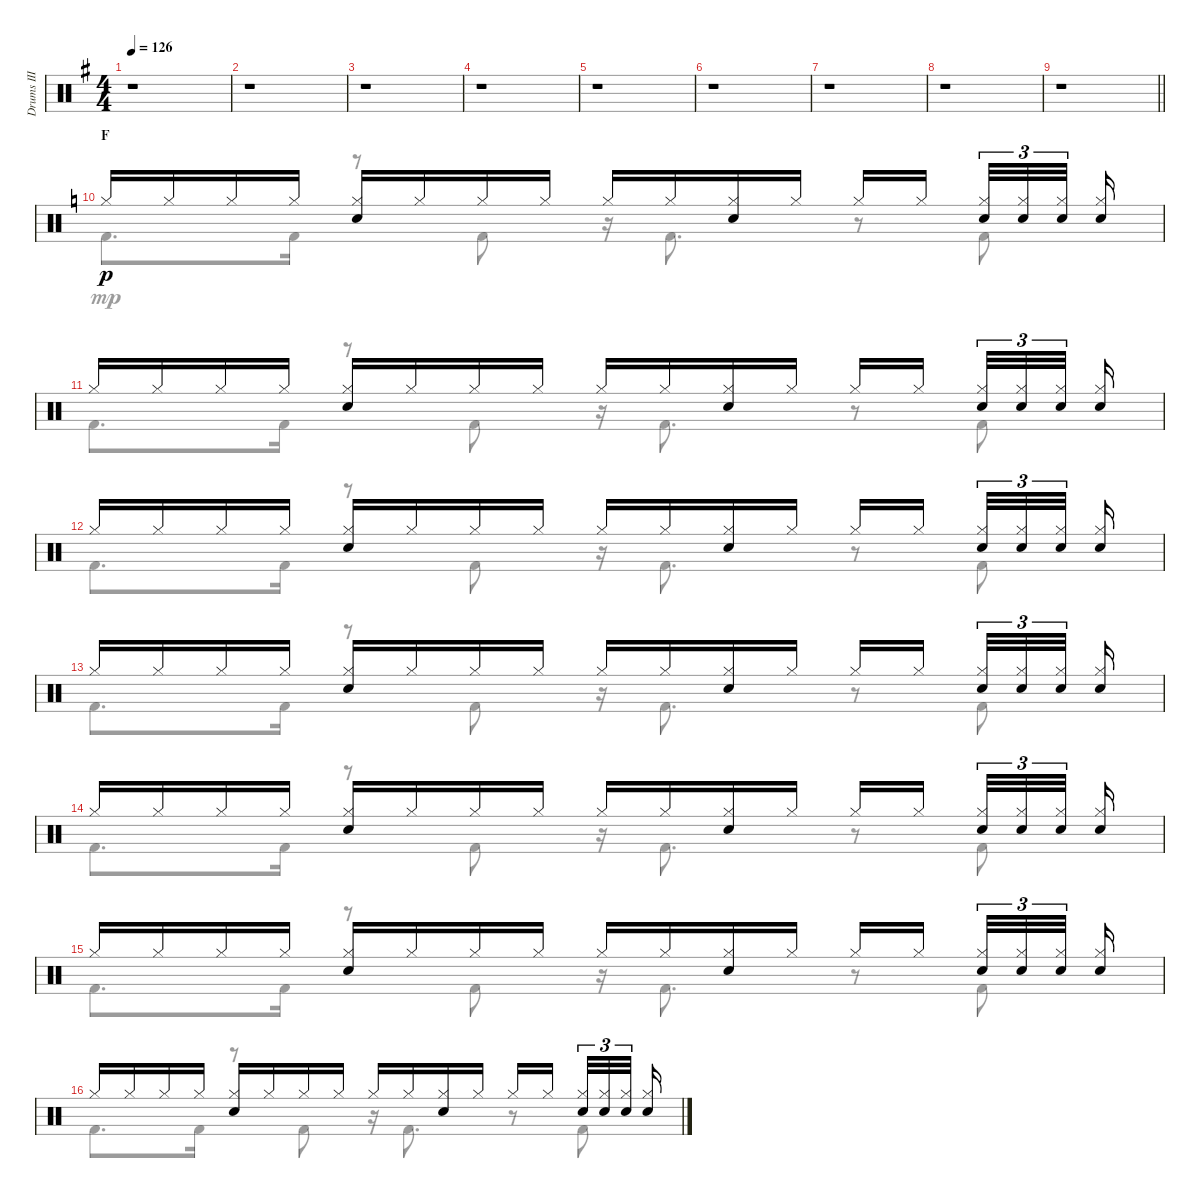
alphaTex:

\track ("Drums III" "Drums III") {instrument percussion}
\staff {score}
\articulation defaults
\voice
\ts (4 4)
\tempo 126
\clef neutral
\ks g
r.1{dy p} |
r.1 |
r.1 |
r.1 |
r.1 |
r.1 |
r.1 |
r.1 |
\barLineRight lightlight
r.1 |
\section ("" "F")
\ks c "Hi-Hat (closed)".16 "Hi-Hat (closed)".16 "Hi-Hat (closed)".16 "Hi-Hat (closed)".16
("Hi-Hat (closed)" "Electric Snare (hit)").16 "Hi-Hat (closed)".16 "Hi-Hat (closed)".16 "Hi-Hat (closed)".16 "Hi-Hat (closed)".16 "Hi-Hat (closed)".16 ("Hi-Hat (closed)" "Electric Snare (hit)").16 "Hi-Hat (closed)".16 "Hi-Hat (closed)".16 "Hi-Hat (closed)".16{beam splitsecondary} ("Hi-Hat (closed)" "Electric Snare (hit)").32{tu (3 2)} ("Hi-Hat (closed)" "Electric Snare (hit)").32{tu (3 2)} ("Hi-Hat (closed)" "Electric Snare (hit)").32{tu (3 2) beam splitsecondary} ("Hi-Hat (closed)" "Electric Snare (hit)").16 |
"Hi-Hat (closed)".16 "Hi-Hat (closed)".16 "Hi-Hat (closed)".16 "Hi-Hat (closed)".16 ("Hi-Hat (closed)" "Electric Snare (hit)").16 "Hi-Hat (closed)".16 "Hi-Hat (closed)".16 "Hi-Hat (closed)".16 "Hi-Hat (closed)".16 "Hi-Hat (closed)".16 ("Hi-Hat (closed)" "Electric Snare (hit)").16 "Hi-Hat (closed)".16 "Hi-Hat (closed)".16 "Hi-Hat (closed)".16{beam splitsecondary} ("Hi-Hat (closed)" "Electric Snare (hit)").32{tu (3 2)} ("Hi-Hat (closed)" "Electric Snare (hit)").32{tu (3 2)} ("Hi-Hat (closed)" "Electric Snare (hit)").32{tu (3 2) beam splitsecondary} ("Hi-Hat (closed)" "Electric Snare (hit)").16 |
"Hi-Hat (closed)".16 "Hi-Hat (closed)".16 "Hi-Hat (closed)".16 "Hi-Hat (closed)".16 ("Hi-Hat (closed)" "Electric Snare (hit)").16 "Hi-Hat (closed)".16 "Hi-Hat (closed)".16 "Hi-Hat (closed)".16 "Hi-Hat (closed)".16 "Hi-Hat (closed)".16 ("Hi-Hat (closed)" "Electric Snare (hit)").16 "Hi-Hat (closed)".16 "Hi-Hat (closed)".16 "Hi-Hat (closed)".16{beam splitsecondary} ("Hi-Hat (closed)" "Electric Snare (hit)").32{tu (3 2)} ("Hi-Hat (closed)" "Electric Snare (hit)").32{tu (3 2)} ("Hi-Hat (closed)" "Electric Snare (hit)").32{tu (3 2) beam splitsecondary} ("Hi-Hat (closed)" "Electric Snare (hit)").16 |
"Hi-Hat (closed)".16 "Hi-Hat (closed)".16 "Hi-Hat (closed)".16 "Hi-Hat (closed)".16 ("Hi-Hat (closed)" "Electric Snare (hit)").16 "Hi-Hat (closed)".16 "Hi-Hat (closed)".16 "Hi-Hat (closed)".16 "Hi-Hat (closed)".16 "Hi-Hat (closed)".16 ("Hi-Hat (closed)" "Electric Snare (hit)").16 "Hi-Hat (closed)".16 "Hi-Hat (closed)".16 "Hi-Hat (closed)".16{beam splitsecondary} ("Hi-Hat (closed)" "Electric Snare (hit)").32{tu (3 2)} ("Hi-Hat (closed)" "Electric Snare (hit)").32{tu (3 2)} ("Hi-Hat (closed)" "Electric Snare (hit)").32{tu (3 2) beam splitsecondary} ("Hi-Hat (closed)" "Electric Snare (hit)").16 |
"Hi-Hat (closed)".16 "Hi-Hat (closed)".16 "Hi-Hat (closed)".16 "Hi-Hat (closed)".16 ("Hi-Hat (closed)" "Electric Snare (hit)").16 "Hi-Hat (closed)".16 "Hi-Hat (closed)".16 "Hi-Hat (closed)".16 "Hi-Hat (closed)".16 "Hi-Hat (closed)".16 ("Hi-Hat (closed)" "Electric Snare (hit)").16 "Hi-Hat (closed)".16 "Hi-Hat (closed)".16 "Hi-Hat (closed)".16{beam splitsecondary} ("Hi-Hat (closed)" "Electric Snare (hit)").32{tu (3 2)} ("Hi-Hat (closed)" "Electric Snare (hit)").32{tu (3 2)} ("Hi-Hat (closed)" "Electric Snare (hit)").32{tu (3 2) beam splitsecondary} ("Hi-Hat (closed)" "Electric Snare (hit)").16 |
"Hi-Hat (closed)".16 "Hi-Hat (closed)".16 "Hi-Hat (closed)".16 "Hi-Hat (closed)".16 ("Hi-Hat (closed)" "Electric Snare (hit)").16 "Hi-Hat (closed)".16 "Hi-Hat (closed)".16 "Hi-Hat (closed)".16 "Hi-Hat (closed)".16 "Hi-Hat (closed)".16 ("Hi-Hat (closed)" "Electric Snare (hit)").16 "Hi-Hat (closed)".16 "Hi-Hat (closed)".16 "Hi-Hat (closed)".16{beam splitsecondary} ("Hi-Hat (closed)" "Electric Snare (hit)").32{tu (3 2)} ("Hi-Hat (closed)" "Electric Snare (hit)").32{tu (3 2)} ("Hi-Hat (closed)" "Electric Snare (hit)").32{tu (3 2) beam splitsecondary} ("Hi-Hat (closed)" "Electric Snare (hit)").16 |
"Hi-Hat (closed)".16 "Hi-Hat (closed)".16 "Hi-Hat (closed)".16 "Hi-Hat (closed)".16 ("Hi-Hat (closed)" "Electric Snare (hit)").16 "Hi-Hat (closed)".16 "Hi-Hat (closed)".16 "Hi-Hat (closed)".16 "Hi-Hat (closed)".16 "Hi-Hat (closed)".16 ("Hi-Hat (closed)" "Electric Snare (hit)").16 "Hi-Hat (closed)".16 "Hi-Hat (closed)".16 "Hi-Hat (closed)".16{beam splitsecondary} ("Hi-Hat (closed)" "Electric Snare (hit)").32{tu (3 2)} ("Hi-Hat (closed)" "Electric Snare (hit)").32{tu (3 2)} ("Hi-Hat (closed)" "Electric Snare (hit)").32{tu (3 2) beam splitsecondary} ("Hi-Hat (closed)" "Electric Snare (hit)").16
\voice
\clef neutral
\ottava regular
\simile none
\ks g
r.1{dy mp} |
r.1 |
r.1 |
r.1 |
r.1 |
r.1 |
r.1 |
r.1 |
\barLineRight lightlight
r.1 |
\ks c "Kick (hit) 2".8{d} "Kick (hit) 2".16
r.8 "Kick (hit) 2".8 r.16 "Kick (hit) 2".8{d} r.8 "Kick (hit) 2".8 |
"Kick (hit) 2".8{d} "Kick (hit) 2".16 r.8 "Kick (hit) 2".8 r.16 "Kick (hit) 2".8{d} r.8 "Kick (hit) 2".8 |
"Kick (hit) 2".8{d} "Kick (hit) 2".16 r.8 "Kick (hit) 2".8 r.16 "Kick (hit) 2".8{d} r.8 "Kick (hit) 2".8 |
"Kick (hit) 2".8{d} "Kick (hit) 2".16 r.8 "Kick (hit) 2".8 r.16 "Kick (hit) 2".8{d} r.8 "Kick (hit) 2".8 |
"Kick (hit) 2".8{d} "Kick (hit) 2".16 r.8 "Kick (hit) 2".8 r.16 "Kick (hit) 2".8{d} r.8 "Kick (hit) 2".8 |
"Kick (hit) 2".8{d} "Kick (hit) 2".16 r.8 "Kick (hit) 2".8 r.16 "Kick (hit) 2".8{d} r.8 "Kick (hit) 2".8 |
"Kick (hit) 2".8{d} "Kick (hit) 2".16 r.8 "Kick (hit) 2".8 r.16 "Kick (hit) 2".8{d} r.8 "Kick (hit) 2".8
